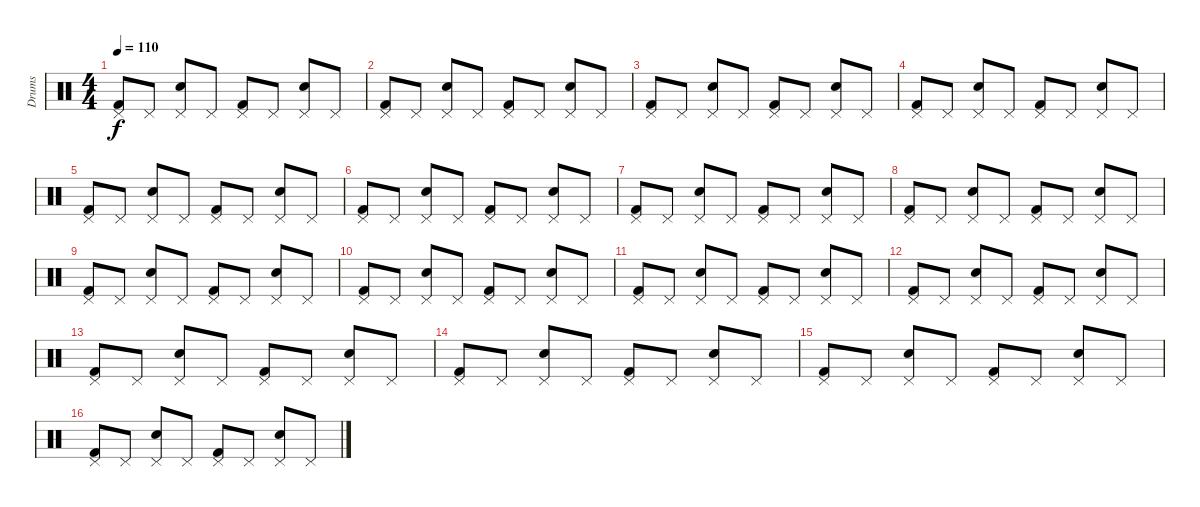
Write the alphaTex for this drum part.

\track ("Drums" "Drums") {instrument percussion}
\staff {score}
\articulation defaults
\ts (4 4)
\tempo 110
\clef neutral
\ks c
("Pedal Hi-Hat (hit)" "Kick (hit) 2").8{dy f} "Pedal Hi-Hat (hit)".8 ("Pedal Hi-Hat (hit)" "Electric Snare (hit)").8 "Pedal Hi-Hat (hit)".8 ("Pedal Hi-Hat (hit)" "Kick (hit) 2").8 "Pedal Hi-Hat (hit)".8 ("Pedal Hi-Hat (hit)" "Electric Snare (hit)").8 "Pedal Hi-Hat (hit)".8 |
("Pedal Hi-Hat (hit)" "Kick (hit) 2").8 "Pedal Hi-Hat (hit)".8 ("Pedal Hi-Hat (hit)" "Electric Snare (hit)").8 "Pedal Hi-Hat (hit)".8 ("Pedal Hi-Hat (hit)" "Kick (hit) 2").8 "Pedal Hi-Hat (hit)".8 ("Pedal Hi-Hat (hit)" "Electric Snare (hit)").8 "Pedal Hi-Hat (hit)".8 |
("Pedal Hi-Hat (hit)" "Kick (hit) 2").8 "Pedal Hi-Hat (hit)".8 ("Pedal Hi-Hat (hit)" "Electric Snare (hit)").8 "Pedal Hi-Hat (hit)".8 ("Pedal Hi-Hat (hit)" "Kick (hit) 2").8 "Pedal Hi-Hat (hit)".8 ("Pedal Hi-Hat (hit)" "Electric Snare (hit)").8 "Pedal Hi-Hat (hit)".8 |
("Pedal Hi-Hat (hit)" "Kick (hit) 2").8 "Pedal Hi-Hat (hit)".8 ("Pedal Hi-Hat (hit)" "Electric Snare (hit)").8 "Pedal Hi-Hat (hit)".8 ("Pedal Hi-Hat (hit)" "Kick (hit) 2").8 "Pedal Hi-Hat (hit)".8 ("Pedal Hi-Hat (hit)" "Electric Snare (hit)").8 "Pedal Hi-Hat (hit)".8 |
("Pedal Hi-Hat (hit)" "Kick (hit) 2").8 "Pedal Hi-Hat (hit)".8 ("Pedal Hi-Hat (hit)" "Electric Snare (hit)").8 "Pedal Hi-Hat (hit)".8 ("Pedal Hi-Hat (hit)" "Kick (hit) 2").8 "Pedal Hi-Hat (hit)".8 ("Pedal Hi-Hat (hit)" "Electric Snare (hit)").8 "Pedal Hi-Hat (hit)".8 |
("Pedal Hi-Hat (hit)" "Kick (hit) 2").8 "Pedal Hi-Hat (hit)".8 ("Pedal Hi-Hat (hit)" "Electric Snare (hit)").8 "Pedal Hi-Hat (hit)".8 ("Pedal Hi-Hat (hit)" "Kick (hit) 2").8 "Pedal Hi-Hat (hit)".8 ("Pedal Hi-Hat (hit)" "Electric Snare (hit)").8 "Pedal Hi-Hat (hit)".8 |
("Pedal Hi-Hat (hit)" "Kick (hit) 2").8 "Pedal Hi-Hat (hit)".8 ("Pedal Hi-Hat (hit)" "Electric Snare (hit)").8 "Pedal Hi-Hat (hit)".8 ("Pedal Hi-Hat (hit)" "Kick (hit) 2").8 "Pedal Hi-Hat (hit)".8 ("Pedal Hi-Hat (hit)" "Electric Snare (hit)").8 "Pedal Hi-Hat (hit)".8 |
("Pedal Hi-Hat (hit)" "Kick (hit) 2").8 "Pedal Hi-Hat (hit)".8 ("Pedal Hi-Hat (hit)" "Electric Snare (hit)").8 "Pedal Hi-Hat (hit)".8 ("Pedal Hi-Hat (hit)" "Kick (hit) 2").8 "Pedal Hi-Hat (hit)".8 ("Pedal Hi-Hat (hit)" "Electric Snare (hit)").8 "Pedal Hi-Hat (hit)".8 |
("Pedal Hi-Hat (hit)" "Kick (hit) 2").8 "Pedal Hi-Hat (hit)".8 ("Pedal Hi-Hat (hit)" "Electric Snare (hit)").8 "Pedal Hi-Hat (hit)".8 ("Pedal Hi-Hat (hit)" "Kick (hit) 2").8 "Pedal Hi-Hat (hit)".8 ("Pedal Hi-Hat (hit)" "Electric Snare (hit)").8 "Pedal Hi-Hat (hit)".8 |
("Pedal Hi-Hat (hit)" "Kick (hit) 2").8 "Pedal Hi-Hat (hit)".8 ("Pedal Hi-Hat (hit)" "Electric Snare (hit)").8 "Pedal Hi-Hat (hit)".8 ("Pedal Hi-Hat (hit)" "Kick (hit) 2").8 "Pedal Hi-Hat (hit)".8 ("Pedal Hi-Hat (hit)" "Electric Snare (hit)").8 "Pedal Hi-Hat (hit)".8 |
("Pedal Hi-Hat (hit)" "Kick (hit) 2").8 "Pedal Hi-Hat (hit)".8 ("Pedal Hi-Hat (hit)" "Electric Snare (hit)").8 "Pedal Hi-Hat (hit)".8 ("Pedal Hi-Hat (hit)" "Kick (hit) 2").8 "Pedal Hi-Hat (hit)".8 ("Pedal Hi-Hat (hit)" "Electric Snare (hit)").8 "Pedal Hi-Hat (hit)".8 |
("Pedal Hi-Hat (hit)" "Kick (hit) 2").8 "Pedal Hi-Hat (hit)".8 ("Pedal Hi-Hat (hit)" "Electric Snare (hit)").8 "Pedal Hi-Hat (hit)".8 ("Pedal Hi-Hat (hit)" "Kick (hit) 2").8 "Pedal Hi-Hat (hit)".8 ("Pedal Hi-Hat (hit)" "Electric Snare (hit)").8 "Pedal Hi-Hat (hit)".8 |
("Pedal Hi-Hat (hit)" "Kick (hit) 2").8 "Pedal Hi-Hat (hit)".8 ("Pedal Hi-Hat (hit)" "Electric Snare (hit)").8 "Pedal Hi-Hat (hit)".8 ("Pedal Hi-Hat (hit)" "Kick (hit) 2").8 "Pedal Hi-Hat (hit)".8 ("Pedal Hi-Hat (hit)" "Electric Snare (hit)").8 "Pedal Hi-Hat (hit)".8 |
("Pedal Hi-Hat (hit)" "Kick (hit) 2").8 "Pedal Hi-Hat (hit)".8 ("Pedal Hi-Hat (hit)" "Electric Snare (hit)").8 "Pedal Hi-Hat (hit)".8 ("Pedal Hi-Hat (hit)" "Kick (hit) 2").8 "Pedal Hi-Hat (hit)".8 ("Pedal Hi-Hat (hit)" "Electric Snare (hit)").8 "Pedal Hi-Hat (hit)".8 |
("Pedal Hi-Hat (hit)" "Kick (hit) 2").8 "Pedal Hi-Hat (hit)".8 ("Pedal Hi-Hat (hit)" "Electric Snare (hit)").8 "Pedal Hi-Hat (hit)".8 ("Pedal Hi-Hat (hit)" "Kick (hit) 2").8 "Pedal Hi-Hat (hit)".8 ("Pedal Hi-Hat (hit)" "Electric Snare (hit)").8 "Pedal Hi-Hat (hit)".8 |
("Pedal Hi-Hat (hit)" "Kick (hit) 2").8 "Pedal Hi-Hat (hit)".8 ("Pedal Hi-Hat (hit)" "Electric Snare (hit)").8 "Pedal Hi-Hat (hit)".8 ("Pedal Hi-Hat (hit)" "Kick (hit) 2").8 "Pedal Hi-Hat (hit)".8 ("Pedal Hi-Hat (hit)" "Electric Snare (hit)").8 "Pedal Hi-Hat (hit)".8
